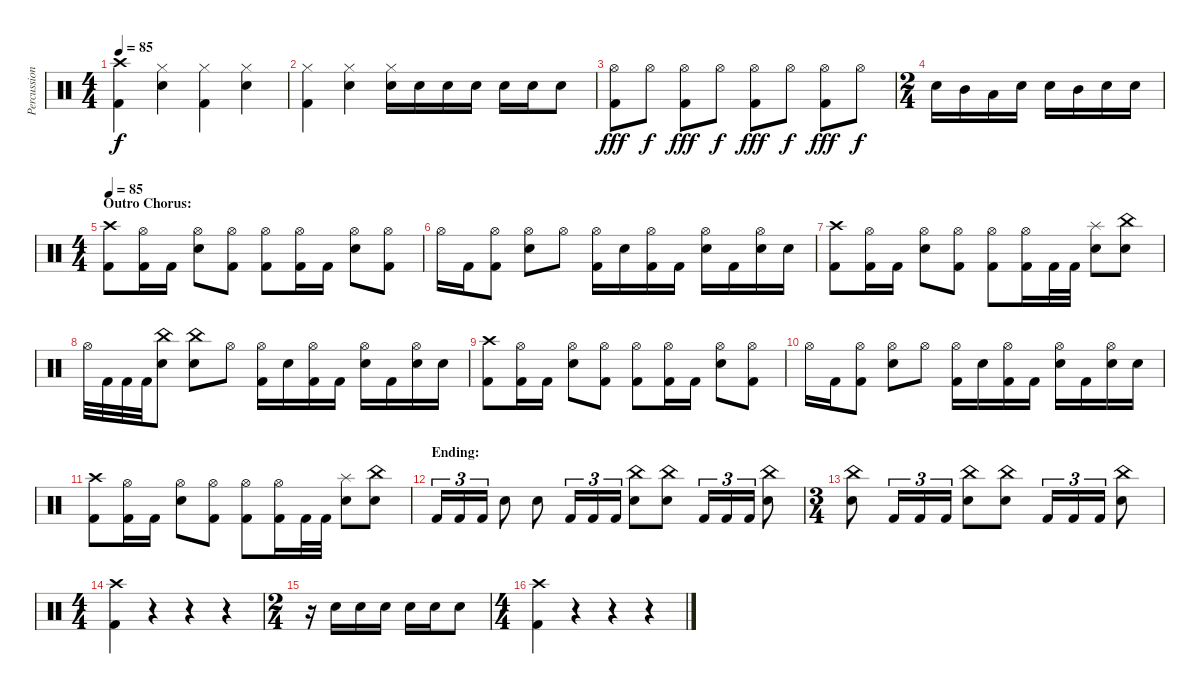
\track ("Percussion" "Percussion") {instrument percussion}
\staff {score}
\articulation defaults
\ts (4 4)
\tempo 85
\clef neutral
\ks c
("Crash high (hit)" "Kick (hit) 2").4{dy f} ("Hi-Hat (closed)" "Electric Snare (hit)").4 ("Hi-Hat (closed)" "Kick (hit) 2").4 ("Hi-Hat (closed)" "Electric Snare (hit)").4 |
("Hi-Hat (closed)" "Kick (hit) 2").4 ("Hi-Hat (closed)" "Electric Snare (hit)").4 ("Hi-Hat (closed)" "Snare (hit) 2").16 "Electric Snare (hit)".16 "Electric Snare (hit)".16 "Electric Snare (hit)".16 "Electric Snare (hit)".16 "Electric Snare (hit)".16 "Electric Snare (hit)".8 |
("Hi-Hat (open)" "Kick (hit) 2").8{dy fff} "Hi-Hat (open)".8{dy f} ("Hi-Hat (open)" "Kick (hit) 2").8{dy fff} "Hi-Hat (open)".8{dy f} ("Hi-Hat (open)" "Kick (hit) 2").8{dy fff} "Hi-Hat (open)".8{dy f} ("Hi-Hat (open)" "Kick (hit) 2").8{dy fff} "Hi-Hat (open)".8{dy f} |
\ts (2 4)
"Electric Snare (hit)".16 "Mid Tom (hit)".16 "Low Tom (hit)".16 "Electric Snare (hit)".16 "Electric Snare (hit)".16 "Mid Tom (hit)".16 "Electric Snare (hit)".16 "Electric Snare (hit)".16 |
\ts (4 4)
\section ("" "Outro Chorus:")
\tempo 85
("Crash high (hit)" "Kick (hit) 2").8 ("Hi-Hat (open)" "Kick (hit) 2").16 "Kick (hit) 2".16 ("Hi-Hat (open)" "Electric Snare (hit)").8 ("Hi-Hat (open)" "Kick (hit) 2").8 ("Hi-Hat (open)" "Kick (hit) 2").8 ("Hi-Hat (open)" "Kick (hit) 2").16 "Kick (hit) 2".16 ("Hi-Hat (open)" "Electric Snare (hit)").8 ("Hi-Hat (open)" "Kick (hit) 2").8 |
"Hi-Hat (open)".16 "Kick (hit) 2".16 ("Hi-Hat (open)" "Kick (hit) 2").8 ("Hi-Hat (open)" "Electric Snare (hit)").8 "Hi-Hat (open)".8 ("Hi-Hat (open)" "Kick (hit) 2").16 "Electric Snare (hit)".16 ("Hi-Hat (open)" "Kick (hit) 2").16 "Kick (hit) 2".16 ("Hi-Hat (open)" "Electric Snare (hit)").16 "Kick (hit) 2".16 ("Hi-Hat (open)" "Electric Snare (hit)").16 "Electric Snare (hit)".16 |
("Crash high (hit)" "Kick (hit) 2").8 ("Hi-Hat (open)" "Kick (hit) 2").16 "Kick (hit) 2".16 ("Hi-Hat (open)" "Electric Snare (hit)").8 ("Hi-Hat (open)" "Kick (hit) 2").8 ("Hi-Hat (open)" "Kick (hit) 2").8 ("Hi-Hat (open)" "Kick (hit) 2").16 "Kick (hit) 2".32 "Kick (hit) 2".32 ("Splash (hit)" "Electric Snare (hit)").8 ("China (hit)" "Electric Snare (hit)").8 |
"Hi-Hat (open)".32 "Kick (hit) 2".32 "Kick (hit) 2".32 "Kick (hit) 2".32 ("China (hit)" "Electric Snare (hit)").8 ("China (hit)" "Electric Snare (hit)").8 "Hi-Hat (open)".8 ("Hi-Hat (open)" "Kick (hit) 2").16 "Electric Snare (hit)".16 ("Hi-Hat (open)" "Kick (hit) 2").16 "Kick (hit) 2".16 ("Hi-Hat (open)" "Electric Snare (hit)").16 "Kick (hit) 2".16 ("Hi-Hat (open)" "Electric Snare (hit)").16 "Electric Snare (hit)".16 |
("Crash high (hit)" "Kick (hit) 2").8 ("Hi-Hat (open)" "Kick (hit) 2").16 "Kick (hit) 2".16 ("Hi-Hat (open)" "Electric Snare (hit)").8 ("Hi-Hat (open)" "Kick (hit) 2").8 ("Hi-Hat (open)" "Kick (hit) 2").8 ("Hi-Hat (open)" "Kick (hit) 2").16 "Kick (hit) 2".16 ("Hi-Hat (open)" "Electric Snare (hit)").8 ("Hi-Hat (open)" "Kick (hit) 2").8 |
"Hi-Hat (open)".16 "Kick (hit) 2".16 ("Hi-Hat (open)" "Kick (hit) 2").8 ("Hi-Hat (open)" "Electric Snare (hit)").8 "Hi-Hat (open)".8 ("Hi-Hat (open)" "Kick (hit) 2").16 "Electric Snare (hit)".16 ("Hi-Hat (open)" "Kick (hit) 2").16 "Kick (hit) 2".16 ("Hi-Hat (open)" "Electric Snare (hit)").16 "Kick (hit) 2".16 ("Hi-Hat (open)" "Electric Snare (hit)").16 "Electric Snare (hit)".16 |
("Crash high (hit)" "Kick (hit) 2").8 ("Hi-Hat (open)" "Kick (hit) 2").16 "Kick (hit) 2".16 ("Hi-Hat (open)" "Electric Snare (hit)").8 ("Hi-Hat (open)" "Kick (hit) 2").8 ("Hi-Hat (open)" "Kick (hit) 2").8 ("Hi-Hat (open)" "Kick (hit) 2").16 "Kick (hit) 2".32 "Kick (hit) 2".32 ("Splash (hit)" "Electric Snare (hit)").8 ("China (hit)" "Electric Snare (hit)").8 |
\section ("" "Ending:")
"Kick (hit) 2".16{tu (3 2)} "Kick (hit) 2".16{tu (3 2)} "Kick (hit) 2".16{tu (3 2)} "Electric Snare (hit)".8 "Electric Snare (hit)".8 "Kick (hit) 2".16{tu (3 2)} "Kick (hit) 2".16{tu (3 2)} "Kick (hit) 2".16{tu (3 2)} ("China (hit)" "Electric Snare (hit)").8 ("China (hit)" "Electric Snare (hit)").8 "Kick (hit) 2".16{tu (3 2)} "Kick (hit) 2".16{tu (3 2)} "Kick (hit) 2".16{tu (3 2)} ("China (hit)" "Electric Snare (hit)").8 |
\ts (3 4)
("China (hit)" "Electric Snare (hit)").8 "Kick (hit) 2".16{tu (3 2)} "Kick (hit) 2".16{tu (3 2)} "Kick (hit) 2".16{tu (3 2)} ("China (hit)" "Electric Snare (hit)").8 ("China (hit)" "Electric Snare (hit)").8 "Kick (hit) 2".16{tu (3 2)} "Kick (hit) 2".16{tu (3 2)} "Kick (hit) 2".16{tu (3 2)} ("China (hit)" "Electric Snare (hit)").8 |
\ts (4 4)
("Crash high (hit)" "Kick (hit) 2").4 r.4 r.4 r.4 |
\ts (2 4)
r.16 "Electric Snare (hit)".16 "Electric Snare (hit)".16 "Electric Snare (hit)".16 "Electric Snare (hit)".16 "Electric Snare (hit)".16 "Electric Snare (hit)".8 |
\ts (4 4)
("Crash high (hit)" "Kick (hit) 2").4 r.4 r.4 r.4
